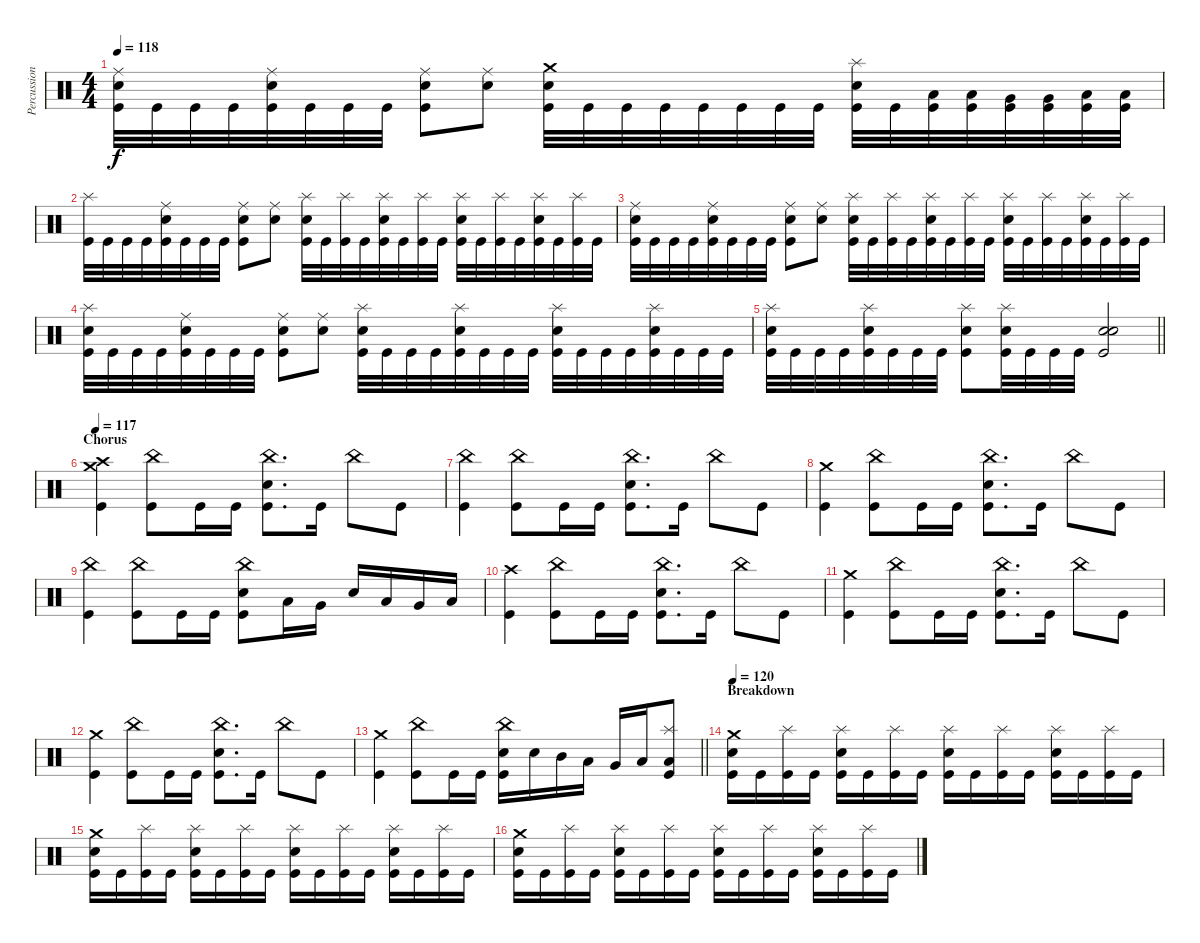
\track ("Percussion" "Percussion") {instrument percussion}
\staff {score}
\articulation defaults
\ts (4 4)
\tempo 118
\clef neutral
\ks c
("Ride (middle)" "Electric Snare (hit)" "Kick (hit)").32{dy f} "Kick (hit)".32 "Kick (hit)".32 "Kick (hit)".32 ("Ride (middle)" "Electric Snare (hit)" "Kick (hit)").32 "Kick (hit)".32 "Kick (hit)".32 "Kick (hit)".32 ("Ride (middle)" "Electric Snare (hit)" "Kick (hit)").8 ("Ride (middle)" "Electric Snare (hit)").8 ("Crash medium (hit)" "Electric Snare (hit)" "Kick (hit)").32 "Kick (hit)".32 "Kick (hit)".32 "Kick (hit)".32 "Kick (hit)".32 "Kick (hit)".32 "Kick (hit)".32 "Kick (hit)".32 ("Splash (hit)" "Electric Snare (hit)" "Kick (hit)").32 "Kick (hit)".32 ("Low Tom (hit)" "Kick (hit)").32 ("Low Tom (hit)" "Kick (hit)").32 ("Very Low Tom (hit)" "Kick (hit)").32 ("Very Low Tom (hit)" "Kick (hit)").32 ("Low Floor Tom (hit)" "Kick (hit)").32 ("Low Floor Tom (hit)" "Kick (hit)").32 |
("Splash (hit)" "Kick (hit)").32 "Kick (hit)".32 "Kick (hit)".32 "Kick (hit)".32 ("Ride (middle)" "Electric Snare (hit)" "Kick (hit)").32 "Kick (hit)".32 "Kick (hit)".32 "Kick (hit)".32 ("Ride (middle)" "Electric Snare (hit)" "Kick (hit)").8 ("Ride (middle)" "Electric Snare (hit)").8 ("Splash (hit)" "Electric Snare (hit)" "Kick (hit)").32 "Kick (hit)".32 ("Splash (hit)" "Kick (hit)").32 "Kick (hit)".32 ("Splash (hit)" "Electric Snare (hit)" "Kick (hit)").32 "Kick (hit)".32 ("Splash (hit)" "Kick (hit)").32 "Kick (hit)".32 ("Splash (hit)" "Electric Snare (hit)" "Kick (hit)").32 "Kick (hit)".32 ("Splash (hit)" "Kick (hit)").32 "Kick (hit)".32 ("Splash (hit)" "Electric Snare (hit)" "Kick (hit)").32 "Kick (hit)".32 ("Splash (hit)" "Kick (hit)").32 "Kick (hit)".32 |
("Ride (middle)" "Electric Snare (hit)" "Kick (hit)").32 "Kick (hit)".32 "Kick (hit)".32 "Kick (hit)".32 ("Ride (middle)" "Electric Snare (hit)" "Kick (hit)").32 "Kick (hit)".32 "Kick (hit)".32 "Kick (hit)".32 ("Ride (middle)" "Electric Snare (hit)" "Kick (hit)").8 ("Ride (middle)" "Electric Snare (hit)").8 ("Splash (hit)" "Electric Snare (hit)" "Kick (hit)").32 "Kick (hit)".32 ("Splash (hit)" "Kick (hit)").32 "Kick (hit)".32 ("Splash (hit)" "Electric Snare (hit)" "Kick (hit)").32 "Kick (hit)".32 ("Splash (hit)" "Kick (hit)").32 "Kick (hit)".32 ("Splash (hit)" "Electric Snare (hit)" "Kick (hit)").32 "Kick (hit)".32 ("Splash (hit)" "Kick (hit)").32 "Kick (hit)".32 ("Splash (hit)" "Electric Snare (hit)" "Kick (hit)").32 "Kick (hit)".32 ("Splash (hit)" "Kick (hit)").32 "Kick (hit)".32 |
("Splash (hit)" "Electric Snare (hit)" "Kick (hit)").32 "Kick (hit)".32 "Kick (hit)".32 "Kick (hit)".32 ("Ride (middle)" "Electric Snare (hit)" "Kick (hit)").32 "Kick (hit)".32 "Kick (hit)".32 "Kick (hit)".32 ("Ride (middle)" "Electric Snare (hit)" "Kick (hit)").8 ("Ride (middle)" "Electric Snare (hit)").8 ("Splash (hit)" "Electric Snare (hit)" "Kick (hit)").32 "Kick (hit)".32 "Kick (hit)".32 "Kick (hit)".32 ("Splash (hit)" "Electric Snare (hit)" "Kick (hit)").32 "Kick (hit)".32 "Kick (hit)".32 "Kick (hit)".32 ("Splash (hit)" "Electric Snare (hit)" "Kick (hit)").32 "Kick (hit)".32 "Kick (hit)".32 "Kick (hit)".32 ("Splash (hit)" "Electric Snare (hit)" "Kick (hit)").32 "Kick (hit)".32 "Kick (hit)".32 "Kick (hit)".32 |
\barLineRight lightlight
("Splash (hit)" "Electric Snare (hit)" "Kick (hit)").32 "Kick (hit)".32 "Kick (hit)".32 "Kick (hit)".32 ("Splash (hit)" "Electric Snare (hit)" "Kick (hit)").32 "Kick (hit)".32 "Kick (hit)".32 "Kick (hit)".32 ("Splash (hit)" "Electric Snare (hit)" "Kick (hit)").8 ("Splash (hit)" "Electric Snare (hit)" "Kick (hit)").32 "Kick (hit)".32 "Kick (hit)".32 "Kick (hit)".32 ("Electric Snare (hit)" "Electric Snare (hit)" "Kick (hit)").2 |
\section ("" "Chorus")
\tempo 117
("Crash high (hit)" "Crash medium (hit)" "Kick (hit)").4 ("China (hit)" "Kick (hit)").8 "Kick (hit)".16 "Kick (hit)".16 ("China (hit)" "Electric Snare (hit)" "Kick (hit)").8{d} "Kick (hit)".16 "China (hit)".8 "Kick (hit)".8 |
("China (hit)" "Kick (hit)").4 ("China (hit)" "Kick (hit)").8 "Kick (hit)".16 "Kick (hit)".16 ("China (hit)" "Electric Snare (hit)" "Kick (hit)").8{d} "Kick (hit)".16 "China (hit)".8 "Kick (hit)".8 |
("Crash medium (hit)" "Kick (hit)").4 ("China (hit)" "Kick (hit)").8 "Kick (hit)".16 "Kick (hit)".16 ("China (hit)" "Electric Snare (hit)" "Kick (hit)").8{d} "Kick (hit)".16 "China (hit)".8 "Kick (hit)".8 |
("China (hit)" "Kick (hit)").4 ("China (hit)" "Kick (hit)").8 "Kick (hit)".16 "Kick (hit)".16 ("China (hit)" "Electric Snare (hit)" "Kick (hit)").8 "Low Tom (hit)".16 "Very Low Tom (hit)".16 "Electric Snare (hit)".16 "Low Tom (hit)".16 "Very Low Tom (hit)".16 "Low Tom (hit)".16 |
("Crash high (hit)" "Kick (hit)").4 ("China (hit)" "Kick (hit)").8 "Kick (hit)".16 "Kick (hit)".16 ("China (hit)" "Electric Snare (hit)" "Kick (hit)").8{d} "Kick (hit)".16 "China (hit)".8 "Kick (hit)".8 |
("Crash medium (hit)" "Kick (hit)").4 ("China (hit)" "Kick (hit)").8 "Kick (hit)".16 "Kick (hit)".16 ("China (hit)" "Electric Snare (hit)" "Kick (hit)").8{d} "Kick (hit)".16 "China (hit)".8 "Kick (hit)".8 |
("Crash medium (hit)" "Kick (hit)").4 ("China (hit)" "Kick (hit)").8 "Kick (hit)".16 "Kick (hit)".16 ("China (hit)" "Electric Snare (hit)" "Kick (hit)").8{d} "Kick (hit)".16 "China (hit)".8 "Kick (hit)".8 |
\barLineRight lightlight
("Crash medium (hit)" "Kick (hit)").4 ("China (hit)" "Kick (hit)").8 "Kick (hit)".16 "Kick (hit)".16 ("China (hit)" "Electric Snare (hit)" "Kick (hit)").16 "Electric Snare (hit)".16 "Mid Tom (hit)".16 "Low Tom (hit)".16 "Very Low Tom (hit)".16 "Low Floor Tom (hit)".16 ("Splash (hit)" "Low Tom (hit)" "Kick (hit)").8 |
\section ("" "Breakdown")
\tempo 120
("Crash medium (hit)" "Electric Snare (hit)" "Kick (hit)").16 "Kick (hit)".16 ("Splash (hit)" "Kick (hit)").16 "Kick (hit)".16 ("Splash (hit)" "Electric Snare (hit)" "Kick (hit)").16 "Kick (hit)".16 ("Splash (hit)" "Kick (hit)").16 "Kick (hit)".16 ("Splash (hit)" "Electric Snare (hit)" "Kick (hit)").16 "Kick (hit)".16 ("Splash (hit)" "Kick (hit)").16 "Kick (hit)".16 ("Splash (hit)" "Electric Snare (hit)" "Kick (hit)").16 "Kick (hit)".16 ("Splash (hit)" "Kick (hit)").16 "Kick (hit)".16 |
("Crash medium (hit)" "Electric Snare (hit)" "Kick (hit)").16 "Kick (hit)".16 ("Splash (hit)" "Kick (hit)").16 "Kick (hit)".16 ("Splash (hit)" "Electric Snare (hit)" "Kick (hit)").16 "Kick (hit)".16 ("Splash (hit)" "Kick (hit)").16 "Kick (hit)".16 ("Splash (hit)" "Electric Snare (hit)" "Kick (hit)").16 "Kick (hit)".16 ("Splash (hit)" "Kick (hit)").16 "Kick (hit)".16 ("Splash (hit)" "Electric Snare (hit)" "Kick (hit)").16 "Kick (hit)".16 ("Splash (hit)" "Kick (hit)").16 "Kick (hit)".16 |
("Crash medium (hit)" "Electric Snare (hit)" "Kick (hit)").16 "Kick (hit)".16 ("Splash (hit)" "Kick (hit)").16 "Kick (hit)".16 ("Splash (hit)" "Electric Snare (hit)" "Kick (hit)").16 "Kick (hit)".16 ("Splash (hit)" "Kick (hit)").16 "Kick (hit)".16 ("Splash (hit)" "Electric Snare (hit)" "Kick (hit)").16 "Kick (hit)".16 ("Splash (hit)" "Kick (hit)").16 "Kick (hit)".16 ("Splash (hit)" "Electric Snare (hit)" "Kick (hit)").16 "Kick (hit)".16 ("Splash (hit)" "Kick (hit)").16 "Kick (hit)".16
